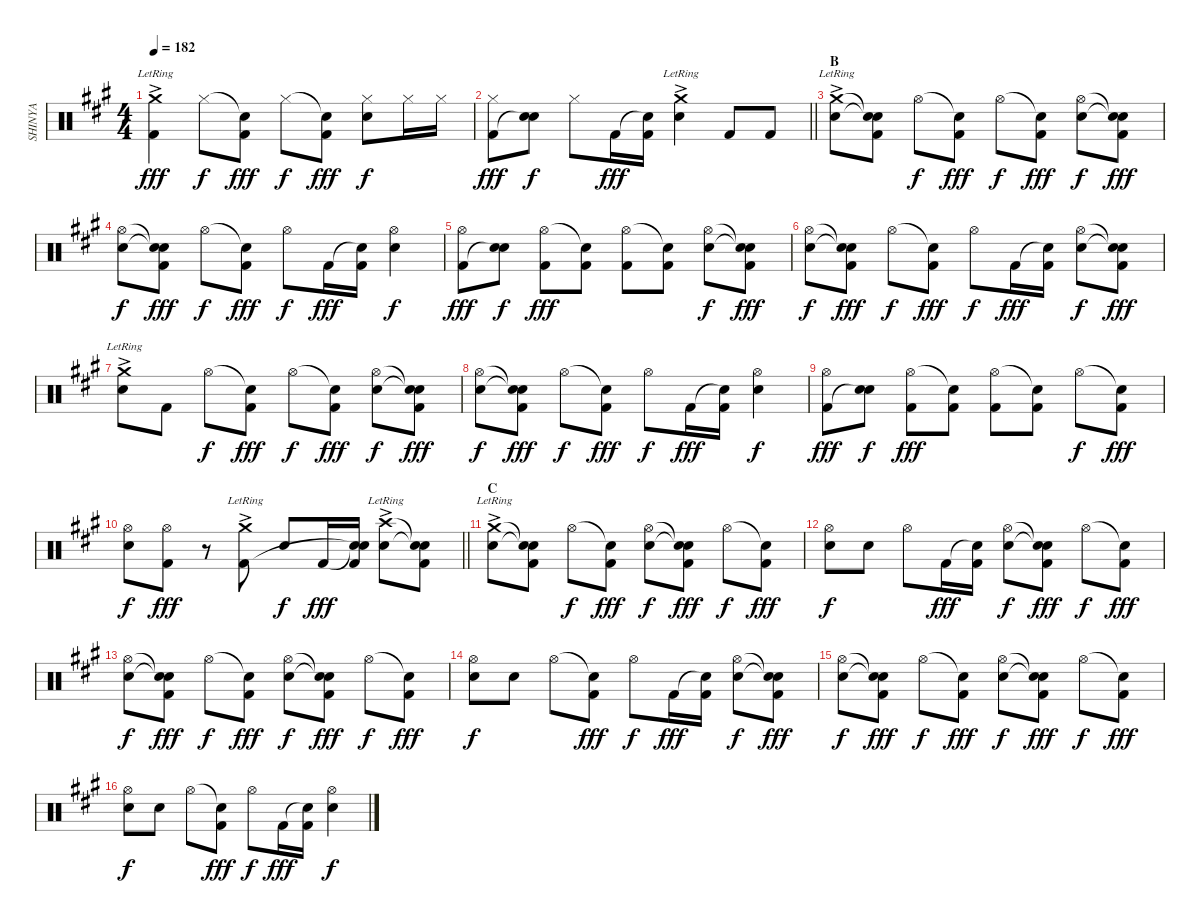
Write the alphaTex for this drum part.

\track ("SHINYA" "SHINYA") {instrument percussion}
\staff {score}
\articulation defaults
\ts (4 4)
\tempo 182
\clef neutral
\ks a
("Crash medium (hit)"{ac lr} "Kick (hit) 2").4{dy fff} "Hi-Hat (closed)".8{dy f} ("Snare (hit)"{t} "Kick (hit) 2").8{dy fff} "Hi-Hat (closed)".8{dy f} ("Snare (hit)"{t} "Kick (hit) 2").8{dy fff} ("Hi-Hat (closed)" "Electric Snare (hit)").8{dy f} "Hi-Hat (closed)".16 "Hi-Hat (closed)".16 |
\barLineRight lightlight
("Hi-Hat (closed)" "Kick (hit) 2").8{dy fff} ("Electric Snare (hit)" "Snare (hit)"{t}).8{dy f} "Hi-Hat (closed)".8 "Kick (hit) 2".16{dy fff} ("Snare (hit)"{t} "Kick (hit) 2").16 ("Crash medium (hit)"{ac lr} "Electric Snare (hit)").4 "Kick (hit) 2".8 "Kick (hit) 2".8 |
\section ("" "B")
("Crash medium (hit)"{ac lr} "Electric Snare (hit)").8 ("Snare (hit)"{t} "Snare (hit)"{t} "Kick (hit) 2").8 "Hi-Hat (open)".8{dy f} ("Snare (hit)"{t} "Kick (hit) 2").8{dy fff} "Hi-Hat (open)".8{dy f} ("Snare (hit)"{t} "Kick (hit) 2").8{dy fff} ("Hi-Hat (open)" "Electric Snare (hit)").8{dy f} ("Snare (hit)"{t} "Snare (hit)"{t} "Kick (hit) 2").8{dy fff} |
("Hi-Hat (open)" "Electric Snare (hit)").8{dy f} ("Snare (hit)"{t} "Snare (hit)"{t} "Kick (hit) 2").8{dy fff} "Hi-Hat (open)".8{dy f} ("Snare (hit)"{t} "Kick (hit) 2").8{dy fff} "Hi-Hat (open)".8{dy f} "Kick (hit) 2".16{dy fff} ("Snare (hit)"{t} "Kick (hit) 2").16 ("Hi-Hat (open)" "Electric Snare (hit)").4{dy f} |
("Hi-Hat (open)" "Kick (hit) 2").8{dy fff} ("Electric Snare (hit)" "Snare (hit)"{t}).8{dy f} ("Hi-Hat (open)" "Kick (hit) 2").8{dy fff} ("Snare (hit)"{t} "Kick (hit) 2").8 ("Hi-Hat (open)" "Kick (hit) 2").8 ("Snare (hit)"{t} "Kick (hit) 2").8 ("Hi-Hat (open)" "Electric Snare (hit)").8{dy f} ("Snare (hit)"{t} "Snare (hit)"{t} "Kick (hit) 2").8{dy fff} |
("Hi-Hat (open)" "Electric Snare (hit)").8{dy f} ("Snare (hit)"{t} "Snare (hit)"{t} "Kick (hit) 2").8{dy fff} "Hi-Hat (open)".8{dy f} ("Snare (hit)"{t} "Kick (hit) 2").8{dy fff} "Hi-Hat (open)".8{dy f} "Kick (hit) 2".16{dy fff} ("Snare (hit)"{t} "Kick (hit) 2").16 ("Hi-Hat (open)" "Electric Snare (hit)").8{dy f} ("Snare (hit)"{t} "Snare (hit)"{t} "Kick (hit) 2").8{dy fff} |
("Crash medium (hit)"{ac lr} "Electric Snare (hit)").8 "Kick (hit) 2".8 "Hi-Hat (open)".8{dy f} ("Snare (hit)"{t} "Kick (hit) 2").8{dy fff} "Hi-Hat (open)".8{dy f} ("Snare (hit)"{t} "Kick (hit) 2").8{dy fff} ("Hi-Hat (open)" "Electric Snare (hit)").8{dy f} ("Snare (hit)"{t} "Snare (hit)"{t} "Kick (hit) 2").8{dy fff} |
("Hi-Hat (open)" "Electric Snare (hit)").8{dy f} ("Snare (hit)"{t} "Snare (hit)"{t} "Kick (hit) 2").8{dy fff} "Hi-Hat (open)".8{dy f} ("Snare (hit)"{t} "Kick (hit) 2").8{dy fff} "Hi-Hat (open)".8{dy f} "Kick (hit) 2".16{dy fff} ("Snare (hit)"{t} "Kick (hit) 2").16 ("Hi-Hat (open)" "Electric Snare (hit)").4{dy f} |
("Hi-Hat (open)" "Kick (hit) 2").8{dy fff} ("Electric Snare (hit)" "Snare (hit)"{t}).8{dy f} ("Hi-Hat (open)" "Kick (hit) 2").8{dy fff} ("Snare (hit)"{t} "Kick (hit) 2").8 ("Hi-Hat (open)" "Kick (hit) 2").8 ("Snare (hit)"{t} "Kick (hit) 2").8 "Hi-Hat (open)".8{dy f} ("Snare (hit)"{t} "Kick (hit) 2").8{dy fff} |
\barLineRight lightlight
("Hi-Hat (open)" "Electric Snare (hit)").8{dy f} ("Hi-Hat (open)" "Kick (hit) 2").8{dy fff} r.8 ("Crash medium (hit)"{ac lr} "Kick (hit) 2").8 "Electric Snare (hit)".8{dy f} "Kick (hit) 2".16{dy fff} ("Snare (hit)"{t} "Snare (hit)"{t} "Kick (hit) 2").16 ("Crash high (hit)"{ac lr} "Electric Snare (hit)").8 ("Snare (hit)"{t} "Snare (hit)"{t} "Kick (hit) 2").8 |
\section ("" "C")
("Crash medium (hit)"{ac lr} "Electric Snare (hit)").8 ("Snare (hit)"{t} "Snare (hit)"{t} "Kick (hit) 2").8 "Hi-Hat (open)".8{dy f} ("Snare (hit)"{t} "Kick (hit) 2").8{dy fff} ("Hi-Hat (open)" "Electric Snare (hit)").8{dy f} ("Snare (hit)"{t} "Snare (hit)"{t} "Kick (hit) 2").8{dy fff} "Hi-Hat (open)".8{dy f} ("Snare (hit)"{t} "Kick (hit) 2").8{dy fff} |
("Hi-Hat (open)" "Electric Snare (hit)").8{dy f} "Electric Snare (hit)".8 "Hi-Hat (open)".8 "Kick (hit) 2".16{dy fff} ("Snare (hit)"{t} "Kick (hit) 2").16 ("Hi-Hat (open)" "Electric Snare (hit)").8{dy f} ("Snare (hit)"{t} "Snare (hit)"{t} "Kick (hit) 2").8{dy fff} "Hi-Hat (open)".8{dy f} ("Snare (hit)"{t} "Kick (hit) 2").8{dy fff} |
("Hi-Hat (open)" "Electric Snare (hit)").8{dy f} ("Snare (hit)"{t} "Snare (hit)"{t} "Kick (hit) 2").8{dy fff} "Hi-Hat (open)".8{dy f} ("Snare (hit)"{t} "Kick (hit) 2").8{dy fff} ("Hi-Hat (open)" "Electric Snare (hit)").8{dy f} ("Snare (hit)"{t} "Snare (hit)"{t} "Kick (hit) 2").8{dy fff} "Hi-Hat (open)".8{dy f} ("Snare (hit)"{t} "Kick (hit) 2").8{dy fff} |
("Hi-Hat (open)" "Electric Snare (hit)").8{dy f} "Electric Snare (hit)".8 "Hi-Hat (open)".8 ("Snare (hit)"{t} "Kick (hit) 2").8{dy fff} "Hi-Hat (open)".8{dy f} "Kick (hit) 2".16{dy fff} ("Snare (hit)"{t} "Kick (hit) 2").16 ("Hi-Hat (open)" "Electric Snare (hit)").8{dy f} ("Snare (hit)"{t} "Snare (hit)"{t} "Kick (hit) 2").8{dy fff} |
("Hi-Hat (open)" "Electric Snare (hit)").8{dy f} ("Snare (hit)"{t} "Snare (hit)"{t} "Kick (hit) 2").8{dy fff} "Hi-Hat (open)".8{dy f} ("Snare (hit)"{t} "Kick (hit) 2").8{dy fff} ("Hi-Hat (open)" "Electric Snare (hit)").8{dy f} ("Snare (hit)"{t} "Snare (hit)"{t} "Kick (hit) 2").8{dy fff} "Hi-Hat (open)".8{dy f} ("Snare (hit)"{t} "Kick (hit) 2").8{dy fff} |
("Hi-Hat (open)" "Electric Snare (hit)").8{dy f} "Electric Snare (hit)".8 "Hi-Hat (open)".8 ("Snare (hit)"{t} "Kick (hit) 2").8{dy fff} "Hi-Hat (open)".8{dy f} "Kick (hit) 2".16{dy fff} ("Snare (hit)"{t} "Kick (hit) 2").16 ("Hi-Hat (open)" "Electric Snare (hit)").4{dy f}
